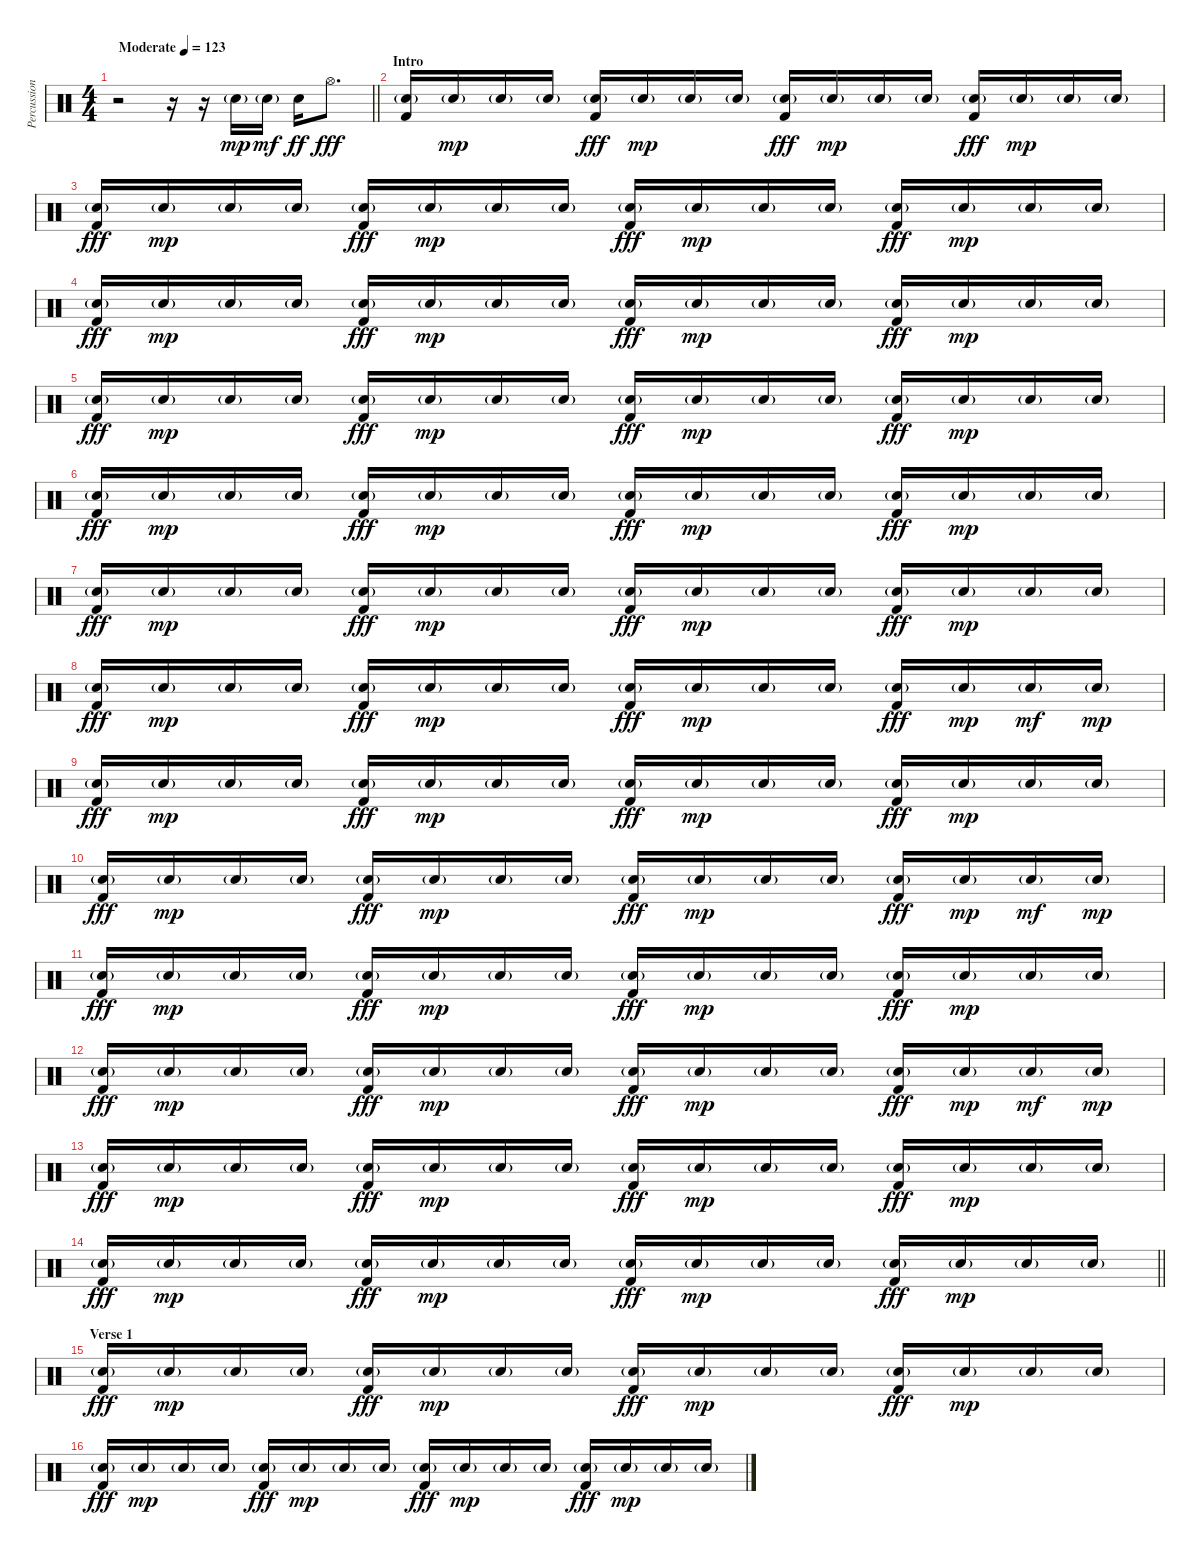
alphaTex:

\track ("Percussion" "Percussion") {instrument percussion}
\staff {score}
\articulation defaults
\ts (4 4)
\tempo (123 "Moderate")
\clef neutral
\barLineRight lightlight
\ks c
r.2{dy mp} r.16 r.16 "Electric Snare (hit)"{g}.16 "Electric Snare (hit)"{g}.16{dy mf} "Electric Snare (hit)".16{dy ff} "Hi-Hat (open)".8{d dy fff} |
\section ("" "Intro")
("Electric Snare (hit)"{g} "Kick (hit) 2").16 "Electric Snare (hit)"{g}.16{dy mp} "Electric Snare (hit)"{g}.16 "Electric Snare (hit)"{g}.16 ("Electric Snare (hit)"{g} "Kick (hit) 2").16{dy fff} "Electric Snare (hit)"{g}.16{dy mp} "Electric Snare (hit)"{g}.16 "Electric Snare (hit)"{g}.16 ("Electric Snare (hit)"{g} "Kick (hit) 2").16{dy fff} "Electric Snare (hit)"{g}.16{dy mp} "Electric Snare (hit)"{g}.16 "Electric Snare (hit)"{g}.16 ("Electric Snare (hit)"{g} "Kick (hit) 2").16{dy fff} "Electric Snare (hit)"{g}.16{dy mp} "Electric Snare (hit)"{g}.16 "Electric Snare (hit)"{g}.16 |
("Electric Snare (hit)"{g} "Kick (hit) 2").16{dy fff} "Electric Snare (hit)"{g}.16{dy mp} "Electric Snare (hit)"{g}.16 "Electric Snare (hit)"{g}.16 ("Electric Snare (hit)"{g} "Kick (hit) 2").16{dy fff} "Electric Snare (hit)"{g}.16{dy mp} "Electric Snare (hit)"{g}.16 "Electric Snare (hit)"{g}.16 ("Electric Snare (hit)"{g} "Kick (hit) 2").16{dy fff} "Electric Snare (hit)"{g}.16{dy mp} "Electric Snare (hit)"{g}.16 "Electric Snare (hit)"{g}.16 ("Electric Snare (hit)"{g} "Kick (hit) 2").16{dy fff} "Electric Snare (hit)"{g}.16{dy mp} "Electric Snare (hit)"{g}.16 "Electric Snare (hit)"{g}.16 |
("Electric Snare (hit)"{g} "Kick (hit) 2").16{dy fff} "Electric Snare (hit)"{g}.16{dy mp} "Electric Snare (hit)"{g}.16 "Electric Snare (hit)"{g}.16 ("Electric Snare (hit)"{g} "Kick (hit) 2").16{dy fff} "Electric Snare (hit)"{g}.16{dy mp} "Electric Snare (hit)"{g}.16 "Electric Snare (hit)"{g}.16 ("Electric Snare (hit)"{g} "Kick (hit) 2").16{dy fff} "Electric Snare (hit)"{g}.16{dy mp} "Electric Snare (hit)"{g}.16 "Electric Snare (hit)"{g}.16 ("Electric Snare (hit)"{g} "Kick (hit) 2").16{dy fff} "Electric Snare (hit)"{g}.16{dy mp} "Electric Snare (hit)"{g}.16 "Electric Snare (hit)"{g}.16 |
("Electric Snare (hit)"{g} "Kick (hit) 2").16{dy fff} "Electric Snare (hit)"{g}.16{dy mp} "Electric Snare (hit)"{g}.16 "Electric Snare (hit)"{g}.16 ("Electric Snare (hit)"{g} "Kick (hit) 2").16{dy fff} "Electric Snare (hit)"{g}.16{dy mp} "Electric Snare (hit)"{g}.16 "Electric Snare (hit)"{g}.16 ("Electric Snare (hit)"{g} "Kick (hit) 2").16{dy fff} "Electric Snare (hit)"{g}.16{dy mp} "Electric Snare (hit)"{g}.16 "Electric Snare (hit)"{g}.16 ("Electric Snare (hit)"{g} "Kick (hit) 2").16{dy fff} "Electric Snare (hit)"{g}.16{dy mp} "Electric Snare (hit)"{g}.16 "Electric Snare (hit)"{g}.16 |
("Electric Snare (hit)"{g} "Kick (hit) 2").16{dy fff} "Electric Snare (hit)"{g}.16{dy mp} "Electric Snare (hit)"{g}.16 "Electric Snare (hit)"{g}.16 ("Electric Snare (hit)"{g} "Kick (hit) 2").16{dy fff} "Electric Snare (hit)"{g}.16{dy mp} "Electric Snare (hit)"{g}.16 "Electric Snare (hit)"{g}.16 ("Electric Snare (hit)"{g} "Kick (hit) 2").16{dy fff} "Electric Snare (hit)"{g}.16{dy mp} "Electric Snare (hit)"{g}.16 "Electric Snare (hit)"{g}.16 ("Electric Snare (hit)"{g} "Kick (hit) 2").16{dy fff} "Electric Snare (hit)"{g}.16{dy mp} "Electric Snare (hit)"{g}.16 "Electric Snare (hit)"{g}.16 |
("Electric Snare (hit)"{g} "Kick (hit) 2").16{dy fff} "Electric Snare (hit)"{g}.16{dy mp} "Electric Snare (hit)"{g}.16 "Electric Snare (hit)"{g}.16 ("Electric Snare (hit)"{g} "Kick (hit) 2").16{dy fff} "Electric Snare (hit)"{g}.16{dy mp} "Electric Snare (hit)"{g}.16 "Electric Snare (hit)"{g}.16 ("Electric Snare (hit)"{g} "Kick (hit) 2").16{dy fff} "Electric Snare (hit)"{g}.16{dy mp} "Electric Snare (hit)"{g}.16 "Electric Snare (hit)"{g}.16 ("Electric Snare (hit)"{g} "Kick (hit) 2").16{dy fff} "Electric Snare (hit)"{g}.16{dy mp} "Electric Snare (hit)"{g}.16 "Electric Snare (hit)"{g}.16 |
("Electric Snare (hit)"{g} "Kick (hit) 2").16{dy fff} "Electric Snare (hit)"{g}.16{dy mp} "Electric Snare (hit)"{g}.16 "Electric Snare (hit)"{g}.16 ("Electric Snare (hit)"{g} "Kick (hit) 2").16{dy fff} "Electric Snare (hit)"{g}.16{dy mp} "Electric Snare (hit)"{g}.16 "Electric Snare (hit)"{g}.16 ("Electric Snare (hit)"{g} "Kick (hit) 2").16{dy fff} "Electric Snare (hit)"{g}.16{dy mp} "Electric Snare (hit)"{g}.16 "Electric Snare (hit)"{g}.16 ("Electric Snare (hit)"{g} "Kick (hit) 2").16{dy fff} "Electric Snare (hit)"{g}.16{dy mp} "Electric Snare (hit)"{g}.16{dy mf} "Electric Snare (hit)"{g}.16{dy mp} |
("Electric Snare (hit)"{g} "Kick (hit) 2").16{dy fff} "Electric Snare (hit)"{g}.16{dy mp} "Electric Snare (hit)"{g}.16 "Electric Snare (hit)"{g}.16 ("Electric Snare (hit)"{g} "Kick (hit) 2").16{dy fff} "Electric Snare (hit)"{g}.16{dy mp} "Electric Snare (hit)"{g}.16 "Electric Snare (hit)"{g}.16 ("Electric Snare (hit)"{g} "Kick (hit) 2").16{dy fff} "Electric Snare (hit)"{g}.16{dy mp} "Electric Snare (hit)"{g}.16 "Electric Snare (hit)"{g}.16 ("Electric Snare (hit)"{g} "Kick (hit) 2").16{dy fff} "Electric Snare (hit)"{g}.16{dy mp} "Electric Snare (hit)"{g}.16 "Electric Snare (hit)"{g}.16 |
("Electric Snare (hit)"{g} "Kick (hit) 2").16{dy fff} "Electric Snare (hit)"{g}.16{dy mp} "Electric Snare (hit)"{g}.16 "Electric Snare (hit)"{g}.16 ("Electric Snare (hit)"{g} "Kick (hit) 2").16{dy fff} "Electric Snare (hit)"{g}.16{dy mp} "Electric Snare (hit)"{g}.16 "Electric Snare (hit)"{g}.16 ("Electric Snare (hit)"{g} "Kick (hit) 2").16{dy fff} "Electric Snare (hit)"{g}.16{dy mp} "Electric Snare (hit)"{g}.16 "Electric Snare (hit)"{g}.16 ("Electric Snare (hit)"{g} "Kick (hit) 2").16{dy fff} "Electric Snare (hit)"{g}.16{dy mp} "Electric Snare (hit)"{g}.16{dy mf} "Electric Snare (hit)"{g}.16{dy mp} |
("Electric Snare (hit)"{g} "Kick (hit) 2").16{dy fff} "Electric Snare (hit)"{g}.16{dy mp} "Electric Snare (hit)"{g}.16 "Electric Snare (hit)"{g}.16 ("Electric Snare (hit)"{g} "Kick (hit) 2").16{dy fff} "Electric Snare (hit)"{g}.16{dy mp} "Electric Snare (hit)"{g}.16 "Electric Snare (hit)"{g}.16 ("Electric Snare (hit)"{g} "Kick (hit) 2").16{dy fff} "Electric Snare (hit)"{g}.16{dy mp} "Electric Snare (hit)"{g}.16 "Electric Snare (hit)"{g}.16 ("Electric Snare (hit)"{g} "Kick (hit) 2").16{dy fff} "Electric Snare (hit)"{g}.16{dy mp} "Electric Snare (hit)"{g}.16 "Electric Snare (hit)"{g}.16 |
("Electric Snare (hit)"{g} "Kick (hit) 2").16{dy fff} "Electric Snare (hit)"{g}.16{dy mp} "Electric Snare (hit)"{g}.16 "Electric Snare (hit)"{g}.16 ("Electric Snare (hit)"{g} "Kick (hit) 2").16{dy fff} "Electric Snare (hit)"{g}.16{dy mp} "Electric Snare (hit)"{g}.16 "Electric Snare (hit)"{g}.16 ("Electric Snare (hit)"{g} "Kick (hit) 2").16{dy fff} "Electric Snare (hit)"{g}.16{dy mp} "Electric Snare (hit)"{g}.16 "Electric Snare (hit)"{g}.16 ("Electric Snare (hit)"{g} "Kick (hit) 2").16{dy fff} "Electric Snare (hit)"{g}.16{dy mp} "Electric Snare (hit)"{g}.16{dy mf} "Electric Snare (hit)"{g}.16{dy mp} |
("Electric Snare (hit)"{g} "Kick (hit) 2").16{dy fff} "Electric Snare (hit)"{g}.16{dy mp} "Electric Snare (hit)"{g}.16 "Electric Snare (hit)"{g}.16 ("Electric Snare (hit)"{g} "Kick (hit) 2").16{dy fff} "Electric Snare (hit)"{g}.16{dy mp} "Electric Snare (hit)"{g}.16 "Electric Snare (hit)"{g}.16 ("Electric Snare (hit)"{g} "Kick (hit) 2").16{dy fff} "Electric Snare (hit)"{g}.16{dy mp} "Electric Snare (hit)"{g}.16 "Electric Snare (hit)"{g}.16 ("Electric Snare (hit)"{g} "Kick (hit) 2").16{dy fff} "Electric Snare (hit)"{g}.16{dy mp} "Electric Snare (hit)"{g}.16 "Electric Snare (hit)"{g}.16 |
\barLineRight lightlight
("Electric Snare (hit)"{g} "Kick (hit) 2").16{dy fff} "Electric Snare (hit)"{g}.16{dy mp} "Electric Snare (hit)"{g}.16 "Electric Snare (hit)"{g}.16 ("Electric Snare (hit)"{g} "Kick (hit) 2").16{dy fff} "Electric Snare (hit)"{g}.16{dy mp} "Electric Snare (hit)"{g}.16 "Electric Snare (hit)"{g}.16 ("Electric Snare (hit)"{g} "Kick (hit) 2").16{dy fff} "Electric Snare (hit)"{g}.16{dy mp} "Electric Snare (hit)"{g}.16 "Electric Snare (hit)"{g}.16 ("Electric Snare (hit)"{g} "Kick (hit) 2").16{dy fff} "Electric Snare (hit)"{g}.16{dy mp} "Electric Snare (hit)"{g}.16 "Electric Snare (hit)"{g}.16 |
\section ("" "Verse 1")
("Electric Snare (hit)"{g} "Kick (hit) 2").16{dy fff} "Electric Snare (hit)"{g}.16{dy mp} "Electric Snare (hit)"{g}.16 "Electric Snare (hit)"{g}.16 ("Electric Snare (hit)"{g} "Kick (hit) 2").16{dy fff} "Electric Snare (hit)"{g}.16{dy mp} "Electric Snare (hit)"{g}.16 "Electric Snare (hit)"{g}.16 ("Electric Snare (hit)"{g} "Kick (hit) 2").16{dy fff} "Electric Snare (hit)"{g}.16{dy mp} "Electric Snare (hit)"{g}.16 "Electric Snare (hit)"{g}.16 ("Electric Snare (hit)"{g} "Kick (hit) 2").16{dy fff} "Electric Snare (hit)"{g}.16{dy mp} "Electric Snare (hit)"{g}.16 "Electric Snare (hit)"{g}.16 |
("Electric Snare (hit)"{g} "Kick (hit) 2").16{dy fff} "Electric Snare (hit)"{g}.16{dy mp} "Electric Snare (hit)"{g}.16 "Electric Snare (hit)"{g}.16 ("Electric Snare (hit)"{g} "Kick (hit) 2").16{dy fff} "Electric Snare (hit)"{g}.16{dy mp} "Electric Snare (hit)"{g}.16 "Electric Snare (hit)"{g}.16 ("Electric Snare (hit)"{g} "Kick (hit) 2").16{dy fff} "Electric Snare (hit)"{g}.16{dy mp} "Electric Snare (hit)"{g}.16 "Electric Snare (hit)"{g}.16 ("Electric Snare (hit)"{g} "Kick (hit) 2").16{dy fff} "Electric Snare (hit)"{g}.16{dy mp} "Electric Snare (hit)"{g}.16 "Electric Snare (hit)"{g}.16
